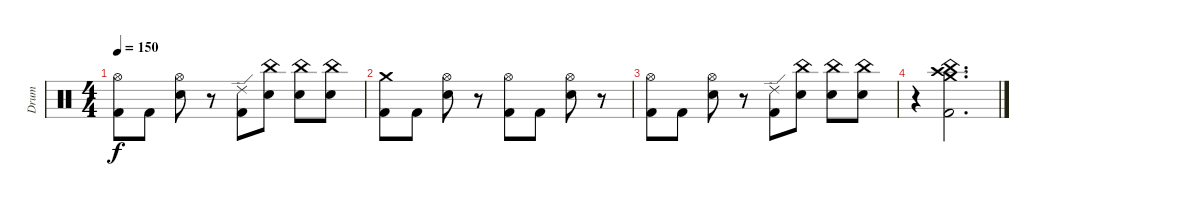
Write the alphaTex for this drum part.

\track ("Drum" "Drum") {instrument percussion}
\staff {score}
\articulation defaults
\ts (4 4)
\tempo 150
\clef neutral
\ks c
("Kick (hit) 2" "Hi-Hat (open)").8{dy f} "Kick (hit) 2".8 ("Electric Snare (hit)" "Hi-Hat (open)").8 r.8 ("Kick (hit) 2" "Ride (edge) 2").8 ("Electric Snare (hit)" "China (hit)").8 ("Electric Snare (hit)" "China (hit)").8 ("Electric Snare (hit)" "China (hit)").8 |
("Kick (hit) 2" "Crash medium (hit)").8 "Kick (hit) 2".8 ("Electric Snare (hit)" "Hi-Hat (open)").8 r.8 ("Kick (hit) 2" "Hi-Hat (open)").8 "Kick (hit) 2".8 ("Electric Snare (hit)" "Hi-Hat (open)").8 r.8 |
("Kick (hit) 2" "Hi-Hat (open)").8 "Kick (hit) 2".8 ("Electric Snare (hit)" "Hi-Hat (open)").8 r.8 ("Kick (hit) 2" "Ride (edge) 2").8 ("Electric Snare (hit)" "China (hit)").8 ("Electric Snare (hit)" "China (hit)").8 ("Electric Snare (hit)" "China (hit)").8 |
r.4 ("Kick (hit) 2" "Crash high (hit)" "China (hit)" "Crash medium (hit)").2{d}
